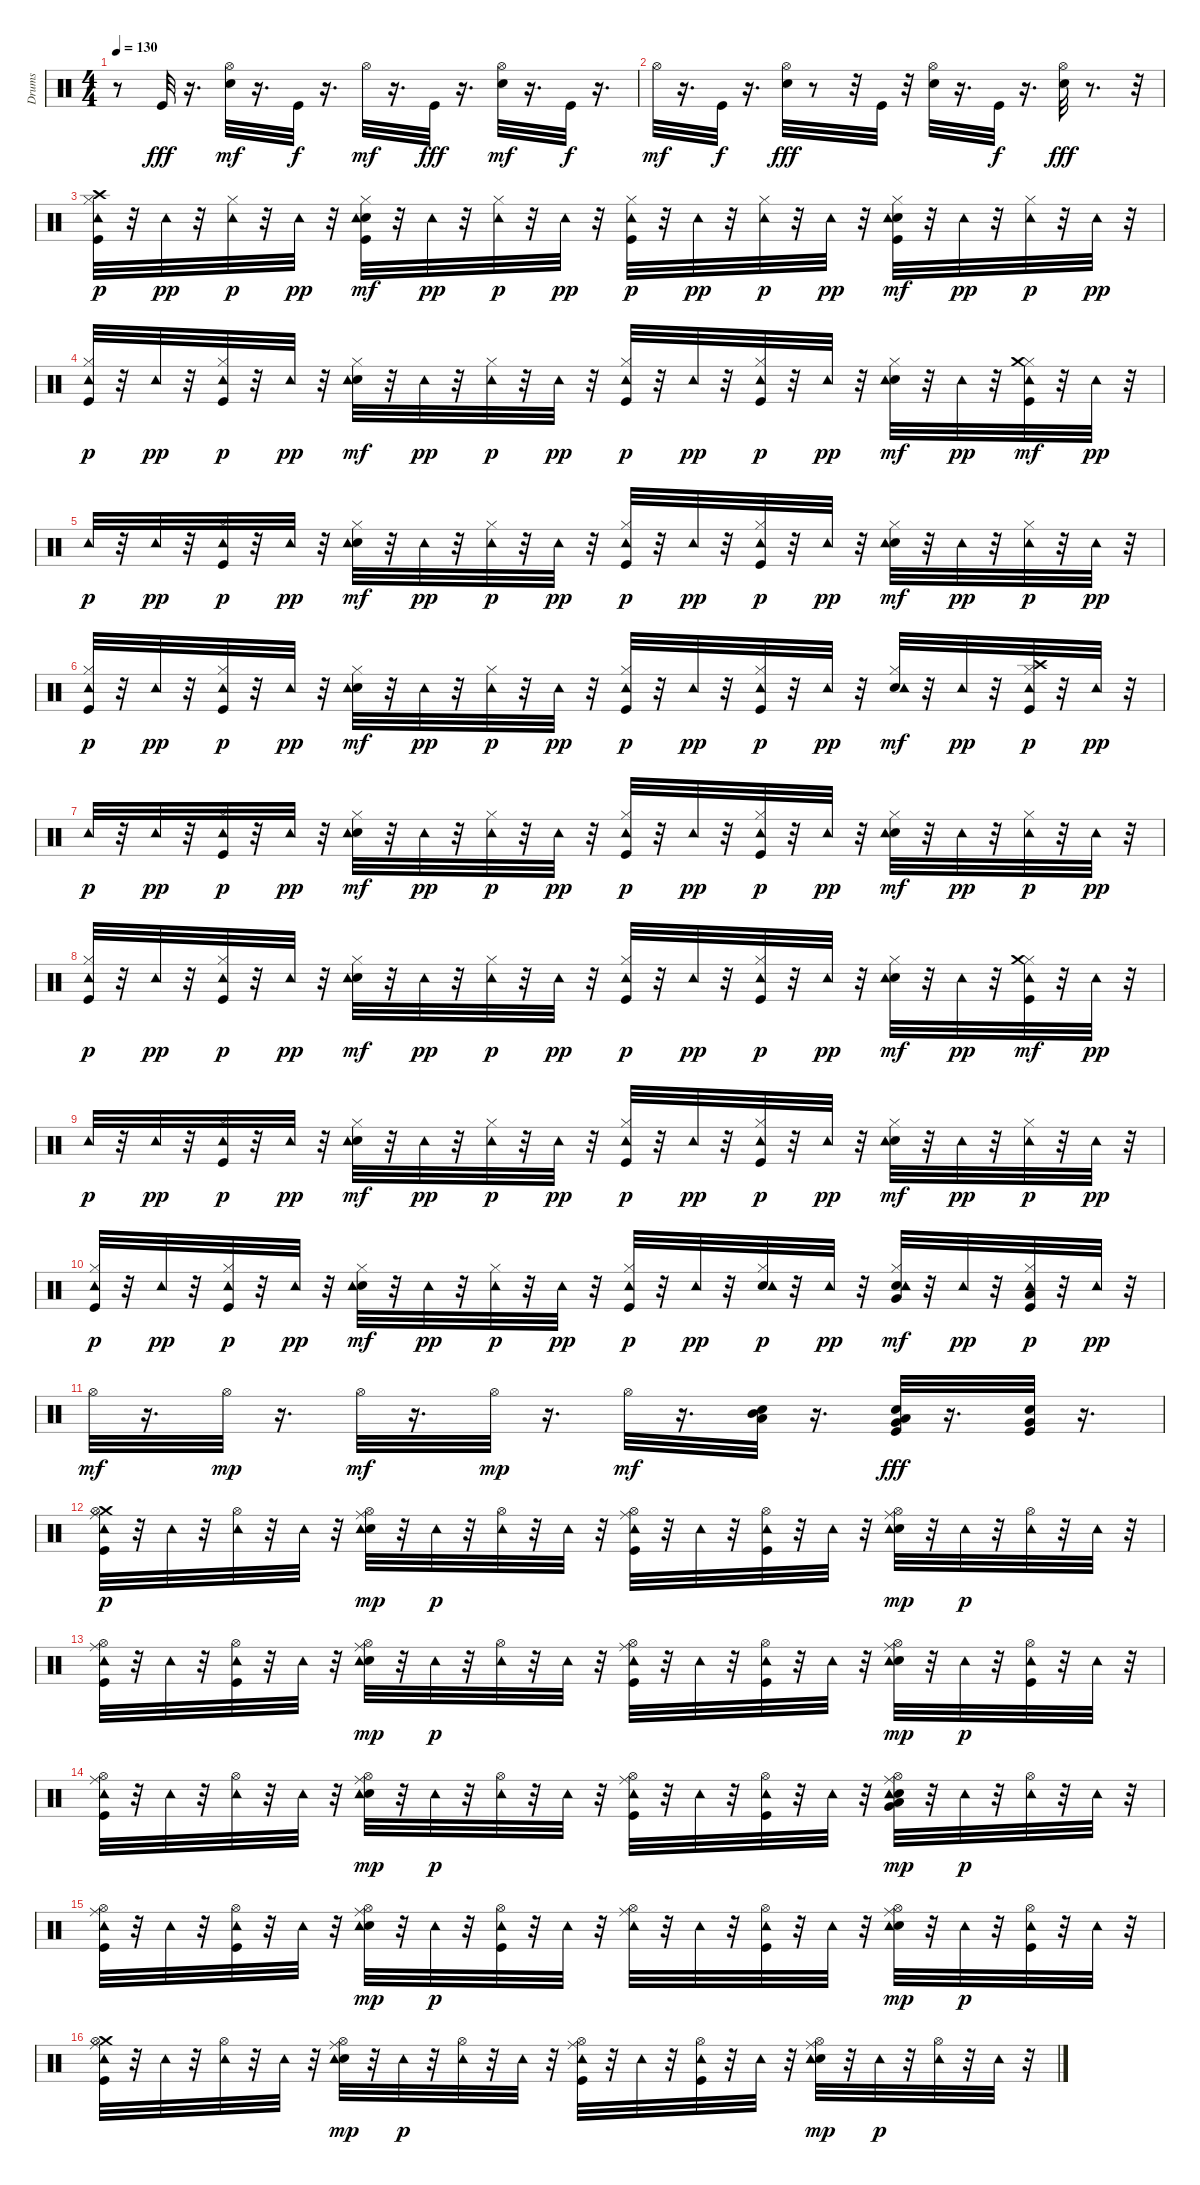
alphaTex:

\track ("Drums" "Drums") {instrument percussion}
\staff {score}
\articulation defaults
\ts (4 4)
\tempo 130
\clef neutral
\ks c
r.8{dy fff} "Kick (hit)".32 r.16{d} ("Electric Snare (hit)" "Hi-Hat (open)").32{dy mf} r.16{d} "Kick (hit)".32{dy f} r.16{d} "Hi-Hat (open)".32{dy mf} r.16{d} "Kick (hit)".32{dy fff} r.16{d} ("Electric Snare (hit)" "Hi-Hat (open)").32{dy mf} r.16{d} "Kick (hit)".32{dy f} r.16{d} |
"Hi-Hat (open)".32{dy mf} r.16{d} "Kick (hit)".32{dy f} r.16{d} ("Hi-Hat (open)" "Electric Snare (hit)").32{dy fff} r.8 r.32 "Kick (hit)".32 r.32 ("Hi-Hat (open)" "Electric Snare (hit)").32 r.16{d} "Kick (hit)".32{dy f} r.16{d} ("Hi-Hat (open)" "Electric Snare (hit)").32{dy fff} r.8{d} r.32 |
("Kick (hit)" "Hi-Hat (closed)" "Crash high (hit)" "Tambourine (hit)").32{dy p} r.32 "Tambourine (hit)".32{dy pp} r.32 ("Hi-Hat (closed)" "Tambourine (hit)").32{dy p} r.32 "Tambourine (hit)".32{dy pp} r.32 ("Kick (hit)" "Electric Snare (hit)" "Hi-Hat (closed)" "Tambourine (hit)").32{dy mf} r.32 "Tambourine (hit)".32{dy pp} r.32 ("Hi-Hat (closed)" "Tambourine (hit)").32{dy p} r.32 "Tambourine (hit)".32{dy pp} r.32 ("Kick (hit)" "Hi-Hat (closed)" "Tambourine (hit)").32{dy p} r.32 "Tambourine (hit)".32{dy pp} r.32 ("Hi-Hat (closed)" "Tambourine (hit)").32{dy p} r.32 "Tambourine (hit)".32{dy pp} r.32 ("Kick (hit)" "Electric Snare (hit)" "Hi-Hat (closed)" "Tambourine (hit)").32{dy mf} r.32 "Tambourine (hit)".32{dy pp} r.32 ("Hi-Hat (closed)" "Tambourine (hit)").32{dy p} r.32 "Tambourine (hit)".32{dy pp} r.32 |
("Kick (hit)" "Hi-Hat (closed)" "Tambourine (hit)").32{dy p} r.32 "Tambourine (hit)".32{dy pp} r.32 ("Kick (hit)" "Hi-Hat (closed)" "Tambourine (hit)").32{dy p} r.32 "Tambourine (hit)".32{dy pp} r.32 ("Electric Snare (hit)" "Hi-Hat (closed)" "Tambourine (hit)").32{dy mf} r.32 "Tambourine (hit)".32{dy pp} r.32 ("Hi-Hat (closed)" "Tambourine (hit)").32{dy p} r.32 "Tambourine (hit)".32{dy pp} r.32 ("Kick (hit)" "Hi-Hat (closed)" "Tambourine (hit)").32{dy p} r.32 "Tambourine (hit)".32{dy pp} r.32 ("Kick (hit)" "Hi-Hat (closed)" "Tambourine (hit)").32{dy p} r.32 "Tambourine (hit)".32{dy pp} r.32 ("Electric Snare (hit)" "Hi-Hat (closed)" "Tambourine (hit)").32{dy mf} r.32 "Tambourine (hit)".32{dy pp} r.32 ("Kick (hit)" "Hi-Hat (closed)" "Tambourine (hit)" "Crash medium (hit)").32{dy mf} r.32 "Tambourine (hit)".32{dy pp} r.32 |
"Tambourine (hit)".32{dy p} r.32 "Tambourine (hit)".32{dy pp} r.32 ("Kick (hit)" "Hi-Hat (closed)" "Tambourine (hit)").32{dy p} r.32 "Tambourine (hit)".32{dy pp} r.32 ("Electric Snare (hit)" "Hi-Hat (closed)" "Tambourine (hit)").32{dy mf} r.32 "Tambourine (hit)".32{dy pp} r.32 ("Hi-Hat (closed)" "Tambourine (hit)").32{dy p} r.32 "Tambourine (hit)".32{dy pp} r.32 ("Kick (hit)" "Hi-Hat (closed)" "Tambourine (hit)").32{dy p} r.32 "Tambourine (hit)".32{dy pp} r.32 ("Kick (hit)" "Hi-Hat (closed)" "Tambourine (hit)").32{dy p} r.32 "Tambourine (hit)".32{dy pp} r.32 ("Electric Snare (hit)" "Hi-Hat (closed)" "Tambourine (hit)").32{dy mf} r.32 "Tambourine (hit)".32{dy pp} r.32 ("Hi-Hat (closed)" "Tambourine (hit)").32{dy p} r.32 "Tambourine (hit)".32{dy pp} r.32 |
("Kick (hit)" "Hi-Hat (closed)" "Tambourine (hit)").32{dy p} r.32 "Tambourine (hit)".32{dy pp} r.32 ("Kick (hit)" "Hi-Hat (closed)" "Tambourine (hit)").32{dy p} r.32 "Tambourine (hit)".32{dy pp} r.32 ("Electric Snare (hit)" "Hi-Hat (closed)" "Tambourine (hit)").32{dy mf} r.32 "Tambourine (hit)".32{dy pp} r.32 ("Hi-Hat (closed)" "Tambourine (hit)").32{dy p} r.32 "Tambourine (hit)".32{dy pp} r.32 ("Kick (hit)" "Hi-Hat (closed)" "Tambourine (hit)").32{dy p} r.32 "Tambourine (hit)".32{dy pp} r.32 ("Kick (hit)" "Hi-Hat (closed)" "Tambourine (hit)").32{dy p} r.32 "Tambourine (hit)".32{dy pp} r.32 ("Electric Snare (hit)" "Hi-Hat (closed)" "Tambourine (hit)").32{dy mf} r.32 "Tambourine (hit)".32{dy pp} r.32 ("Kick (hit)" "Hi-Hat (closed)" "Crash high (hit)" "Tambourine (hit)").32{dy p} r.32 "Tambourine (hit)".32{dy pp} r.32 |
"Tambourine (hit)".32{dy p} r.32 "Tambourine (hit)".32{dy pp} r.32 ("Kick (hit)" "Hi-Hat (closed)" "Tambourine (hit)").32{dy p} r.32 "Tambourine (hit)".32{dy pp} r.32 ("Electric Snare (hit)" "Hi-Hat (closed)" "Tambourine (hit)").32{dy mf} r.32 "Tambourine (hit)".32{dy pp} r.32 ("Hi-Hat (closed)" "Tambourine (hit)").32{dy p} r.32 "Tambourine (hit)".32{dy pp} r.32 ("Kick (hit)" "Hi-Hat (closed)" "Tambourine (hit)").32{dy p} r.32 "Tambourine (hit)".32{dy pp} r.32 ("Kick (hit)" "Hi-Hat (closed)" "Tambourine (hit)").32{dy p} r.32 "Tambourine (hit)".32{dy pp} r.32 ("Electric Snare (hit)" "Hi-Hat (closed)" "Tambourine (hit)").32{dy mf} r.32 "Tambourine (hit)".32{dy pp} r.32 ("Hi-Hat (closed)" "Tambourine (hit)").32{dy p} r.32 "Tambourine (hit)".32{dy pp} r.32 |
("Kick (hit)" "Hi-Hat (closed)" "Tambourine (hit)").32{dy p} r.32 "Tambourine (hit)".32{dy pp} r.32 ("Kick (hit)" "Hi-Hat (closed)" "Tambourine (hit)").32{dy p} r.32 "Tambourine (hit)".32{dy pp} r.32 ("Electric Snare (hit)" "Hi-Hat (closed)" "Tambourine (hit)").32{dy mf} r.32 "Tambourine (hit)".32{dy pp} r.32 ("Hi-Hat (closed)" "Tambourine (hit)").32{dy p} r.32 "Tambourine (hit)".32{dy pp} r.32 ("Kick (hit)" "Hi-Hat (closed)" "Tambourine (hit)").32{dy p} r.32 "Tambourine (hit)".32{dy pp} r.32 ("Kick (hit)" "Hi-Hat (closed)" "Tambourine (hit)").32{dy p} r.32 "Tambourine (hit)".32{dy pp} r.32 ("Electric Snare (hit)" "Hi-Hat (closed)" "Tambourine (hit)").32{dy mf} r.32 "Tambourine (hit)".32{dy pp} r.32 ("Kick (hit)" "Hi-Hat (closed)" "Tambourine (hit)" "Crash medium (hit)").32{dy mf} r.32 "Tambourine (hit)".32{dy pp} r.32 |
"Tambourine (hit)".32{dy p} r.32 "Tambourine (hit)".32{dy pp} r.32 ("Kick (hit)" "Hi-Hat (closed)" "Tambourine (hit)").32{dy p} r.32 "Tambourine (hit)".32{dy pp} r.32 ("Electric Snare (hit)" "Hi-Hat (closed)" "Tambourine (hit)").32{dy mf} r.32 "Tambourine (hit)".32{dy pp} r.32 ("Hi-Hat (closed)" "Tambourine (hit)").32{dy p} r.32 "Tambourine (hit)".32{dy pp} r.32 ("Kick (hit)" "Hi-Hat (closed)" "Tambourine (hit)").32{dy p} r.32 "Tambourine (hit)".32{dy pp} r.32 ("Kick (hit)" "Hi-Hat (closed)" "Tambourine (hit)").32{dy p} r.32 "Tambourine (hit)".32{dy pp} r.32 ("Electric Snare (hit)" "Hi-Hat (closed)" "Tambourine (hit)").32{dy mf} r.32 "Tambourine (hit)".32{dy pp} r.32 ("Hi-Hat (closed)" "Tambourine (hit)").32{dy p} r.32 "Tambourine (hit)".32{dy pp} r.32 |
("Kick (hit)" "Hi-Hat (closed)" "Tambourine (hit)").32{dy p} r.32 "Tambourine (hit)".32{dy pp} r.32 ("Kick (hit)" "Hi-Hat (closed)" "Tambourine (hit)").32{dy p} r.32 "Tambourine (hit)".32{dy pp} r.32 ("Electric Snare (hit)" "Hi-Hat (closed)" "Tambourine (hit)").32{dy mf} r.32 "Tambourine (hit)".32{dy pp} r.32 ("Hi-Hat (closed)" "Tambourine (hit)").32{dy p} r.32 "Tambourine (hit)".32{dy pp} r.32 ("Kick (hit)" "Hi-Hat (closed)" "Tambourine (hit)").32{dy p} r.32 "Tambourine (hit)".32{dy pp} r.32 ("Electric Snare (hit)" "Hi-Hat (closed)" "Tambourine (hit)").32{dy p} r.32 "Tambourine (hit)".32{dy pp} r.32 ("Electric Snare (hit)" "Hi-Hat (closed)" "Very Low Tom (hit)" "Tambourine (hit)").32{dy mf} r.32 "Tambourine (hit)".32{dy pp} r.32 ("Kick (hit)" "Low Floor Tom (hit)" "Hi-Hat (closed)" "Tambourine (hit)").32{dy p} r.32 "Tambourine (hit)".32{dy pp} r.32 |
"Hi-Hat (open)".32{dy mf} r.16{d} "Hi-Hat (open)".32{dy mp} r.16{d} "Hi-Hat (open)".32{dy mf} r.16{d} "Hi-Hat (open)".32{dy mp} r.16{d} "Hi-Hat (open)".32{dy mf} r.16{d} ("Mid Tom (hit)" "Electric Snare (hit)" "Low Tom (hit)").32 r.16{d} ("Very Low Tom (hit)" "Kick (hit)" "Electric Snare (hit)" "Low Tom (hit)").32{dy fff} r.16{d} ("Very Low Tom (hit)" "Kick (hit)" "Electric Snare (hit)").32 r.16{d} |
("Ride (middle)" "Crash medium (hit)" "Kick (hit)" "Hi-Hat (open)" "Tambourine (hit)").32{dy p} r.32 "Tambourine (hit)".32 r.32 ("Hi-Hat (open)" "Tambourine (hit)").32 r.32 "Tambourine (hit)".32 r.32 ("Ride (middle)" "Electric Snare (hit)" "Hi-Hat (open)" "Tambourine (hit)").32{dy mp} r.32 "Tambourine (hit)".32{dy p} r.32 ("Hi-Hat (open)" "Tambourine (hit)").32 r.32 "Tambourine (hit)".32 r.32 ("Ride (middle)" "Kick (hit)" "Hi-Hat (open)" "Tambourine (hit)").32 r.32 "Tambourine (hit)".32 r.32 ("Kick (hit)" "Hi-Hat (open)" "Tambourine (hit)").32 r.32 "Tambourine (hit)".32 r.32 ("Ride (middle)" "Electric Snare (hit)" "Hi-Hat (open)" "Tambourine (hit)").32{dy mp} r.32 "Tambourine (hit)".32{dy p} r.32 ("Hi-Hat (open)" "Tambourine (hit)").32 r.32 "Tambourine (hit)".32 r.32 |
("Ride (middle)" "Kick (hit)" "Hi-Hat (open)" "Tambourine (hit)").32 r.32 "Tambourine (hit)".32 r.32 ("Hi-Hat (open)" "Kick (hit)" "Tambourine (hit)").32 r.32 "Tambourine (hit)".32 r.32 ("Ride (middle)" "Electric Snare (hit)" "Hi-Hat (open)" "Tambourine (hit)").32{dy mp} r.32 "Tambourine (hit)".32{dy p} r.32 ("Hi-Hat (open)" "Tambourine (hit)").32 r.32 "Tambourine (hit)".32 r.32 ("Ride (middle)" "Kick (hit)" "Hi-Hat (open)" "Tambourine (hit)").32 r.32 "Tambourine (hit)".32 r.32 ("Hi-Hat (open)" "Kick (hit)" "Tambourine (hit)").32 r.32 "Tambourine (hit)".32 r.32 ("Ride (middle)" "Electric Snare (hit)" "Hi-Hat (open)" "Tambourine (hit)").32{dy mp} r.32 "Tambourine (hit)".32{dy p} r.32 ("Hi-Hat (open)" "Kick (hit)" "Tambourine (hit)").32 r.32 "Tambourine (hit)".32 r.32 |
("Ride (middle)" "Kick (hit)" "Hi-Hat (open)" "Tambourine (hit)").32 r.32 "Tambourine (hit)".32 r.32 ("Hi-Hat (open)" "Tambourine (hit)").32 r.32 "Tambourine (hit)".32 r.32 ("Ride (middle)" "Electric Snare (hit)" "Hi-Hat (open)" "Tambourine (hit)").32{dy mp} r.32 "Tambourine (hit)".32{dy p} r.32 ("Hi-Hat (open)" "Tambourine (hit)").32 r.32 "Tambourine (hit)".32 r.32 ("Ride (middle)" "Kick (hit)" "Hi-Hat (open)" "Tambourine (hit)").32 r.32 "Tambourine (hit)".32 r.32 ("Kick (hit)" "Hi-Hat (open)" "Tambourine (hit)").32 r.32 "Tambourine (hit)".32 r.32 ("Very Low Tom (hit)" "Low Tom (hit)" "Ride (middle)" "Electric Snare (hit)" "Hi-Hat (open)" "Tambourine (hit)").32{dy mp} r.32 "Tambourine (hit)".32{dy p} r.32 ("Hi-Hat (open)" "Tambourine (hit)").32 r.32 "Tambourine (hit)".32 r.32 |
("Ride (middle)" "Kick (hit)" "Hi-Hat (open)" "Tambourine (hit)").32 r.32 "Tambourine (hit)".32 r.32 ("Hi-Hat (open)" "Kick (hit)" "Tambourine (hit)").32 r.32 "Tambourine (hit)".32 r.32 ("Ride (middle)" "Electric Snare (hit)" "Hi-Hat (open)" "Tambourine (hit)").32{dy mp} r.32 "Tambourine (hit)".32{dy p} r.32 ("Kick (hit)" "Hi-Hat (open)" "Tambourine (hit)").32 r.32 "Tambourine (hit)".32 r.32 ("Ride (middle)" "Hi-Hat (open)" "Tambourine (hit)").32 r.32 "Tambourine (hit)".32 r.32 ("Hi-Hat (open)" "Kick (hit)" "Tambourine (hit)").32 r.32 "Tambourine (hit)".32 r.32 ("Ride (middle)" "Electric Snare (hit)" "Hi-Hat (open)" "Tambourine (hit)").32{dy mp} r.32 "Tambourine (hit)".32{dy p} r.32 ("Hi-Hat (open)" "Kick (hit)" "Tambourine (hit)").32 r.32 "Tambourine (hit)".32 r.32 |
("Ride (middle)" "Crash medium (hit)" "Kick (hit)" "Hi-Hat (open)" "Tambourine (hit)").32 r.32 "Tambourine (hit)".32 r.32 ("Hi-Hat (open)" "Tambourine (hit)").32 r.32 "Tambourine (hit)".32 r.32 ("Ride (middle)" "Electric Snare (hit)" "Hi-Hat (open)" "Tambourine (hit)").32{dy mp} r.32 "Tambourine (hit)".32{dy p} r.32 ("Hi-Hat (open)" "Tambourine (hit)").32 r.32 "Tambourine (hit)".32 r.32 ("Ride (middle)" "Kick (hit)" "Hi-Hat (open)" "Tambourine (hit)").32 r.32 "Tambourine (hit)".32 r.32 ("Kick (hit)" "Hi-Hat (open)" "Tambourine (hit)").32 r.32 "Tambourine (hit)".32 r.32 ("Ride (middle)" "Electric Snare (hit)" "Hi-Hat (open)" "Tambourine (hit)").32{dy mp} r.32 "Tambourine (hit)".32{dy p} r.32 ("Hi-Hat (open)" "Tambourine (hit)").32 r.32 "Tambourine (hit)".32 r.32
